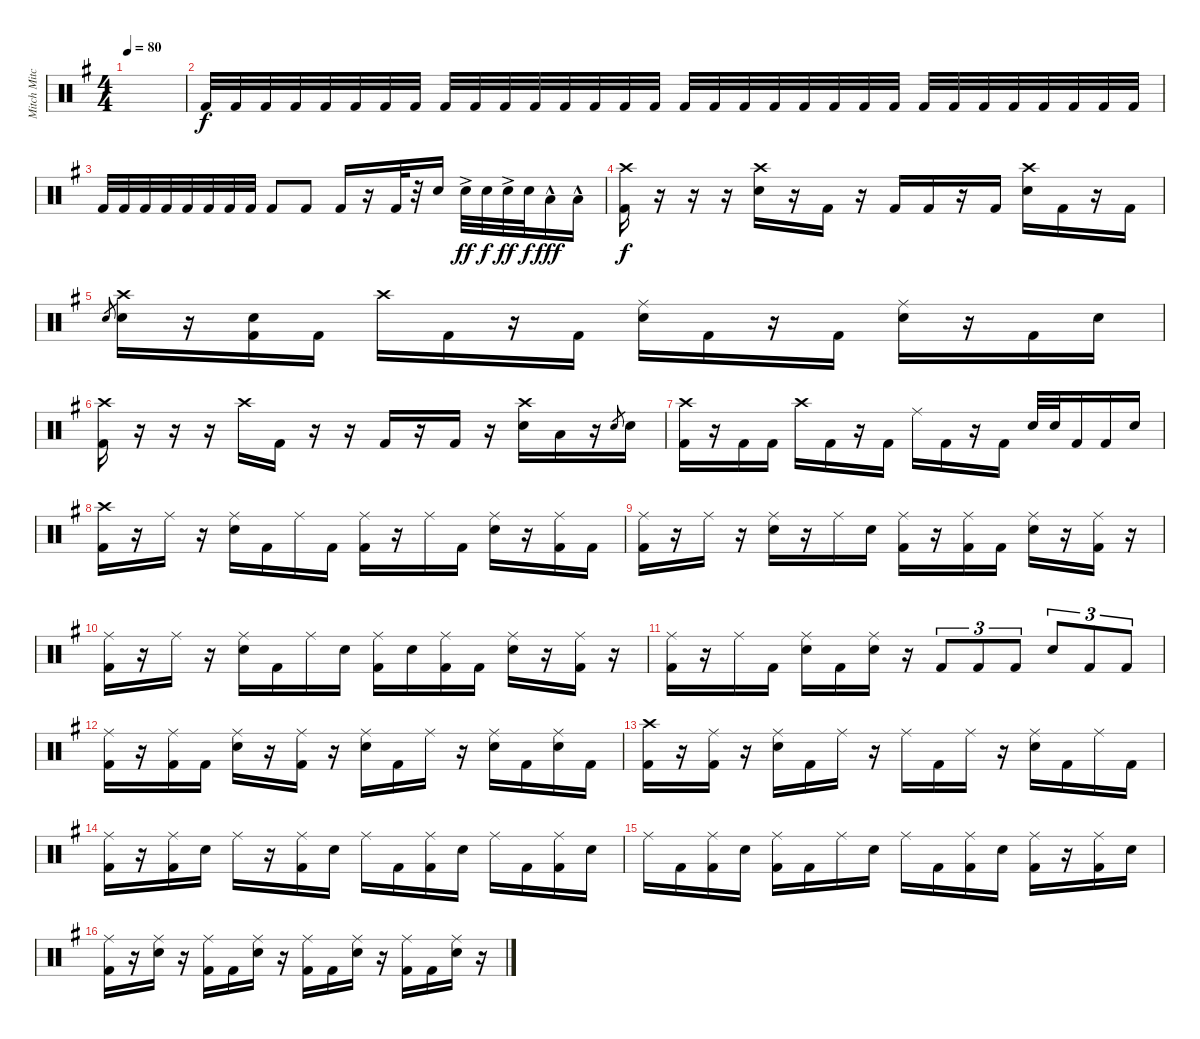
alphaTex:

\track ("Mitch Mitchell" "Mitch Mitc") {instrument percussion}
\staff {score}
\articulation defaults
\ts (4 4)
\tempo 80
\clef neutral
\ks eminor
|
"Kick (hit) 2".32{volume 4} "Kick (hit) 2".32 "Kick (hit) 2".32 "Kick (hit) 2".32 "Kick (hit) 2".32 "Kick (hit) 2".32 "Kick (hit) 2".32 "Kick (hit) 2".32 "Kick (hit) 2".32 "Kick (hit) 2".32 "Kick (hit) 2".32 "Kick (hit) 2".32 "Kick (hit) 2".32 "Kick (hit) 2".32 "Kick (hit) 2".32 "Kick (hit) 2".32{volume 7} "Kick (hit) 2".32 "Kick (hit) 2".32 "Kick (hit) 2".32 "Kick (hit) 2".32 "Kick (hit) 2".32 "Kick (hit) 2".32 "Kick (hit) 2".32 "Kick (hit) 2".32 "Kick (hit) 2".32 "Kick (hit) 2".32 "Kick (hit) 2".32 "Kick (hit) 2".32 "Kick (hit) 2".32 "Kick (hit) 2".32 "Kick (hit) 2".32 "Kick (hit) 2".32 |
"Kick (hit) 2".32 "Kick (hit) 2".32 "Kick (hit) 2".32 "Kick (hit) 2".32 "Kick (hit) 2".32 "Kick (hit) 2".32 "Kick (hit) 2".32 "Kick (hit) 2".32 "Kick (hit) 2".8 "Kick (hit) 2".8 "Kick (hit) 2".16 r.16 "Kick (hit) 2".32 r.32 "Electric Snare (hit)".16 "Electric Snare (hit)"{ac}.32{dy ff} "Electric Snare (hit)".32{dy f} "Electric Snare (hit)"{ac}.32{dy ff} "Electric Snare (hit)".32{dy f} "Low Tom (hit)"{hac}.16{dy fff} "Low Floor Tom (hit)"{hac}.16 |
("Crash high (hit)" "Kick (hit) 2").16{dy f volume 14} r.16 r.16 r.16 ("Crash high (hit)" "Electric Snare (hit)").16 r.16 "Kick (hit) 2".16 r.16 "Kick (hit) 2".16 "Kick (hit) 2".16 r.16 "Kick (hit) 2".16 ("Crash high (hit)" "Electric Snare (hit)").16 "Kick (hit) 2".16 r.16 "Kick (hit) 2".16 |
"Electric Snare (hit)".8{gr} ("Crash high (hit)" "Electric Snare (hit)").16 r.16 ("Electric Snare (hit)" "Kick (hit) 2").16 "Kick (hit) 2".16 "Crash high (hit)".16 "Kick (hit) 2".16 r.16 "Kick (hit) 2".16 ("Ride (middle)" "Electric Snare (hit)").16 "Kick (hit) 2".16 r.16 "Kick (hit) 2".16 ("Ride (middle)" "Electric Snare (hit)").16 r.16 "Kick (hit) 2".16 "Electric Snare (hit)".16 |
("Crash high (hit)" "Kick (hit) 2").16 r.16 r.16 r.16 "Crash high (hit)".16 "Kick (hit) 2".16 r.16 r.16 "Kick (hit) 2".16 r.16 "Kick (hit) 2".16 r.16 ("Crash high (hit)" "Electric Snare (hit)").16 "Low Tom (hit)".16 r.16 "Electric Snare (hit)".8{gr} "Electric Snare (hit)".16 |
("Crash high (hit)" "Kick (hit) 2").16 r.16 "Kick (hit) 2".16 "Kick (hit) 2".16 "Crash high (hit)".16 "Kick (hit) 2".16 r.16 "Kick (hit) 2".16 "Ride (middle)".16 "Kick (hit) 2".16 r.16 "Kick (hit) 2".16 "Electric Snare (hit)".32 "Electric Snare (hit)".32 "Kick (hit) 2".16 "Kick (hit) 2".16 "Electric Snare (hit)".16 |
("Crash high (hit)" "Kick (hit) 2").16 r.16 "Ride (middle)".16 r.16 ("Ride (middle)" "Electric Snare (hit)").16 "Kick (hit) 2".16 "Ride (middle)".16 "Kick (hit) 2".16 ("Ride (middle)" "Kick (hit) 2").16 r.16 "Ride (middle)".16 "Kick (hit) 2".16 ("Ride (middle)" "Electric Snare (hit)").16 r.16 ("Ride (middle)" "Kick (hit) 2").16 "Kick (hit) 2".16 |
("Ride (middle)" "Kick (hit) 2").16 r.16 "Ride (middle)".16 r.16 ("Ride (middle)" "Electric Snare (hit)").16 r.16 "Ride (middle)".16 "Electric Snare (hit)".16 ("Ride (middle)" "Kick (hit) 2").16 r.16 ("Ride (middle)" "Kick (hit) 2").16 "Kick (hit) 2".16 ("Ride (middle)" "Electric Snare (hit)").16 r.16 ("Ride (middle)" "Kick (hit) 2").16 r.16 |
("Ride (middle)" "Kick (hit) 2").16 r.16 "Ride (middle)".16 r.16 ("Ride (middle)" "Electric Snare (hit)").16 "Kick (hit) 2".16 "Ride (middle)".16 "Electric Snare (hit)".16 ("Ride (middle)" "Kick (hit) 2").16 "Electric Snare (hit)".16 ("Ride (middle)" "Kick (hit) 2").16 "Kick (hit) 2".16 ("Ride (middle)" "Electric Snare (hit)").16 r.16 ("Ride (middle)" "Kick (hit) 2").16 r.16 |
("Ride (middle)" "Kick (hit) 2").16 r.16 "Ride (middle)".16 "Kick (hit) 2".16 ("Ride (middle)" "Electric Snare (hit)").16 "Kick (hit) 2".16 ("Ride (middle)" "Electric Snare (hit)").16 r.16 "Kick (hit) 2".8{tu (3 2)} "Kick (hit) 2".8{tu (3 2)} "Kick (hit) 2".8{tu (3 2)} "Electric Snare (hit)".8{tu (3 2)} "Kick (hit) 2".8{tu (3 2)} "Kick (hit) 2".8{tu (3 2)} |
("Ride (middle)" "Kick (hit) 2").16 r.16 ("Ride (middle)" "Kick (hit) 2").16 "Kick (hit) 2".16 ("Ride (middle)" "Electric Snare (hit)").16 r.16 ("Ride (middle)" "Kick (hit) 2").16 r.16 ("Ride (middle)" "Electric Snare (hit)").16 "Kick (hit) 2".16 "Ride (middle)".16 r.16 ("Ride (middle)" "Electric Snare (hit)").16 "Kick (hit) 2".16 ("Ride (middle)" "Electric Snare (hit)").16 "Kick (hit) 2".16 |
("Crash high (hit)" "Kick (hit) 2").16 r.16 ("Ride (middle)" "Kick (hit) 2").16 r.16 ("Ride (middle)" "Electric Snare (hit)").16 "Kick (hit) 2".16 "Ride (middle)".16 r.16 "Ride (middle)".16 "Kick (hit) 2".16 "Ride (middle)".16 r.16 ("Ride (middle)" "Electric Snare (hit)").16 "Kick (hit) 2".16 "Ride (middle)".16 "Kick (hit) 2".16 |
("Ride (middle)" "Kick (hit) 2").16 r.16 ("Ride (middle)" "Kick (hit) 2").16 "Electric Snare (hit)".16 "Ride (middle)".16 r.16 ("Ride (middle)" "Kick (hit) 2").16 "Electric Snare (hit)".16 "Ride (middle)".16 "Kick (hit) 2".16 ("Ride (middle)" "Kick (hit) 2").16 "Electric Snare (hit)".16 "Ride (middle)".16 "Kick (hit) 2".16 ("Ride (middle)" "Kick (hit) 2").16 "Electric Snare (hit)".16 |
"Ride (middle)".16 "Kick (hit) 2".16 ("Ride (middle)" "Kick (hit) 2").16 "Electric Snare (hit)".16 ("Ride (middle)" "Kick (hit) 2").16 "Kick (hit) 2".16 "Ride (middle)".16 "Electric Snare (hit)".16 "Ride (middle)".16 "Kick (hit) 2".16 ("Ride (middle)" "Kick (hit) 2").16 "Electric Snare (hit)".16 ("Ride (middle)" "Kick (hit) 2").16 r.16 ("Ride (middle)" "Kick (hit) 2").16 "Electric Snare (hit)".16 |
("Ride (middle)" "Kick (hit) 2").16 r.16 ("Ride (middle)" "Electric Snare (hit)").16 r.16 ("Ride (middle)" "Kick (hit) 2").16 "Kick (hit) 2".16 ("Ride (middle)" "Electric Snare (hit)").16 r.16 ("Ride (middle)" "Kick (hit) 2").16 "Kick (hit) 2".16 ("Ride (middle)" "Electric Snare (hit)").16 r.16 ("Ride (middle)" "Kick (hit) 2").16 "Kick (hit) 2".16 ("Ride (middle)" "Electric Snare (hit)").16 r.16
